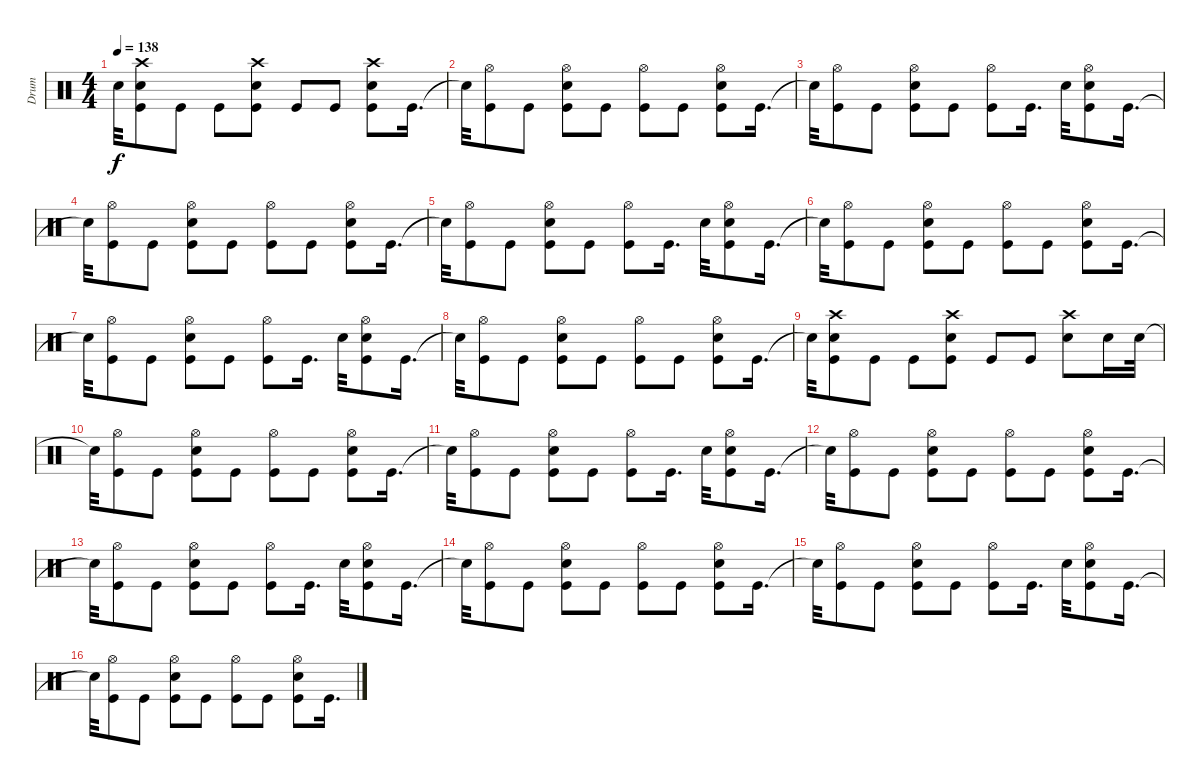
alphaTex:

\track ("Drum" "Drum") {instrument percussion}
\staff {score}
\articulation defaults
\ts (4 4)
\tempo 138
\clef neutral
\ks c "Snare (hit)"{t}.32{dy f}
("Crash high (hit)" "Electric Snare (hit)" "Kick (hit)").8 "Kick (hit)".8 "Kick (hit)".8 ("Crash high (hit)" "Electric Snare (hit)" "Kick (hit)").8 "Kick (hit)".8 "Kick (hit)".8 ("Crash high (hit)" "Electric Snare (hit)" "Kick (hit)").8 "Kick (hit)".16{d} |
"Snare (hit)"{t}.32 ("Hi-Hat (open)" "Kick (hit)").8 "Kick (hit)".8 ("Hi-Hat (open)" "Electric Snare (hit)" "Kick (hit)").8 "Kick (hit)".8 ("Hi-Hat (open)" "Kick (hit)").8 "Kick (hit)".8 ("Electric Snare (hit)" "Hi-Hat (open)" "Kick (hit)").8 "Kick (hit)".16{d} |
"Snare (hit)"{t}.32 ("Hi-Hat (open)" "Kick (hit)").8 "Kick (hit)".8 ("Hi-Hat (open)" "Electric Snare (hit)" "Kick (hit)").8 "Kick (hit)".8 ("Hi-Hat (open)" "Kick (hit)").8 "Kick (hit)".16{d} "Electric Snare (hit)".32 ("Electric Snare (hit)" "Hi-Hat (open)" "Kick (hit)").8 "Kick (hit)".16{d} |
"Snare (hit)"{t}.32 ("Hi-Hat (open)" "Kick (hit)").8 "Kick (hit)".8 ("Hi-Hat (open)" "Electric Snare (hit)" "Kick (hit)").8 "Kick (hit)".8 ("Hi-Hat (open)" "Kick (hit)").8 "Kick (hit)".8 ("Electric Snare (hit)" "Hi-Hat (open)" "Kick (hit)").8 "Kick (hit)".16{d} |
"Snare (hit)"{t}.32 ("Hi-Hat (open)" "Kick (hit)").8 "Kick (hit)".8 ("Hi-Hat (open)" "Electric Snare (hit)" "Kick (hit)").8 "Kick (hit)".8 ("Hi-Hat (open)" "Kick (hit)").8 "Kick (hit)".16{d} "Electric Snare (hit)".32 ("Electric Snare (hit)" "Hi-Hat (open)" "Kick (hit)").8 "Kick (hit)".16{d} |
"Snare (hit)"{t}.32 ("Hi-Hat (open)" "Kick (hit)").8 "Kick (hit)".8 ("Hi-Hat (open)" "Electric Snare (hit)" "Kick (hit)").8 "Kick (hit)".8 ("Hi-Hat (open)" "Kick (hit)").8 "Kick (hit)".8 ("Electric Snare (hit)" "Hi-Hat (open)" "Kick (hit)").8 "Kick (hit)".16{d} |
"Snare (hit)"{t}.32 ("Hi-Hat (open)" "Kick (hit)").8 "Kick (hit)".8 ("Hi-Hat (open)" "Electric Snare (hit)" "Kick (hit)").8 "Kick (hit)".8 ("Hi-Hat (open)" "Kick (hit)").8 "Kick (hit)".16{d} "Electric Snare (hit)".32 ("Electric Snare (hit)" "Hi-Hat (open)" "Kick (hit)").8 "Kick (hit)".16{d} |
"Snare (hit)"{t}.32 ("Hi-Hat (open)" "Kick (hit)").8 "Kick (hit)".8 ("Hi-Hat (open)" "Electric Snare (hit)" "Kick (hit)").8 "Kick (hit)".8 ("Hi-Hat (open)" "Kick (hit)").8 "Kick (hit)".8 ("Electric Snare (hit)" "Hi-Hat (open)" "Kick (hit)").8 "Kick (hit)".16{d} |
"Snare (hit)"{t}.32 ("Crash high (hit)" "Electric Snare (hit)" "Kick (hit)").8 "Kick (hit)".8 "Kick (hit)".8 ("Crash high (hit)" "Electric Snare (hit)" "Kick (hit)").8 "Kick (hit)".8 "Kick (hit)".8 ("Crash high (hit)" "Electric Snare (hit)").8 "Electric Snare (hit)".16 "Electric Snare (hit)".32 |
"Snare (hit)"{t}.32 ("Hi-Hat (open)" "Kick (hit)").8 "Kick (hit)".8 ("Hi-Hat (open)" "Electric Snare (hit)" "Kick (hit)").8 "Kick (hit)".8 ("Hi-Hat (open)" "Kick (hit)").8 "Kick (hit)".8 ("Electric Snare (hit)" "Hi-Hat (open)" "Kick (hit)").8 "Kick (hit)".16{d} |
"Snare (hit)"{t}.32 ("Hi-Hat (open)" "Kick (hit)").8 "Kick (hit)".8 ("Hi-Hat (open)" "Electric Snare (hit)" "Kick (hit)").8 "Kick (hit)".8 ("Hi-Hat (open)" "Kick (hit)").8 "Kick (hit)".16{d} "Electric Snare (hit)".32 ("Electric Snare (hit)" "Hi-Hat (open)" "Kick (hit)").8 "Kick (hit)".16{d} |
"Snare (hit)"{t}.32 ("Hi-Hat (open)" "Kick (hit)").8 "Kick (hit)".8 ("Hi-Hat (open)" "Electric Snare (hit)" "Kick (hit)").8 "Kick (hit)".8 ("Hi-Hat (open)" "Kick (hit)").8 "Kick (hit)".8 ("Electric Snare (hit)" "Hi-Hat (open)" "Kick (hit)").8 "Kick (hit)".16{d} |
"Snare (hit)"{t}.32 ("Hi-Hat (open)" "Kick (hit)").8 "Kick (hit)".8 ("Hi-Hat (open)" "Electric Snare (hit)" "Kick (hit)").8 "Kick (hit)".8 ("Hi-Hat (open)" "Kick (hit)").8 "Kick (hit)".16{d} "Electric Snare (hit)".32 ("Electric Snare (hit)" "Hi-Hat (open)" "Kick (hit)").8 "Kick (hit)".16{d} |
"Snare (hit)"{t}.32 ("Hi-Hat (open)" "Kick (hit)").8 "Kick (hit)".8 ("Hi-Hat (open)" "Electric Snare (hit)" "Kick (hit)").8 "Kick (hit)".8 ("Hi-Hat (open)" "Kick (hit)").8 "Kick (hit)".8 ("Electric Snare (hit)" "Hi-Hat (open)" "Kick (hit)").8 "Kick (hit)".16{d} |
"Snare (hit)"{t}.32 ("Hi-Hat (open)" "Kick (hit)").8 "Kick (hit)".8 ("Hi-Hat (open)" "Electric Snare (hit)" "Kick (hit)").8 "Kick (hit)".8 ("Hi-Hat (open)" "Kick (hit)").8 "Kick (hit)".16{d} "Electric Snare (hit)".32 ("Electric Snare (hit)" "Hi-Hat (open)" "Kick (hit)").8 "Kick (hit)".16{d} |
"Snare (hit)"{t}.32 ("Hi-Hat (open)" "Kick (hit)").8 "Kick (hit)".8 ("Hi-Hat (open)" "Electric Snare (hit)" "Kick (hit)").8 "Kick (hit)".8 ("Hi-Hat (open)" "Kick (hit)").8 "Kick (hit)".8 ("Electric Snare (hit)" "Hi-Hat (open)" "Kick (hit)").8 "Kick (hit)".16{d}
